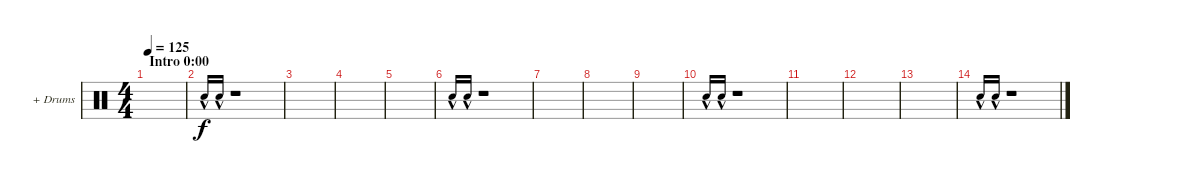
\defaultSystemsLayout 4
\bracketExtendMode groupsimilarinstruments
\firstSystemTrackNameOrientation horizontal
\otherSystemsTrackNameOrientation horizontal
\track ("+ Drums" "+ Drums") {instrument percussion}
\staff {score}
\articulation defaults
\ts (4 4)
\section ("" "Intro 0:00")
\tempo 125
\clef neutral
\scale
0.474178
\ks c
|
\scale
0.262911 "Snare (hit) 2"{hac}.16{gr onbeat} "Snare (hit) 2"{hac}.16{gr onbeat} r.1 |
\scale
0.262911 |
\scale
0.333333 |
\scale
0.333333 |
\scale
0.333333 "Snare (hit) 2"{hac}.16{gr onbeat} "Snare (hit) 2"{hac}.16{gr onbeat} r.1 |
\scale
0.333333 |
\scale
0.333333 |
\scale
0.333333 |
\scale
0.333333 "Snare (hit) 2"{hac}.16{gr onbeat} "Snare (hit) 2"{hac}.16{gr onbeat} r.1 |
\scale
0.333333 |
\scale
0.333333 |
\scale
0.333333 |
\scale
0.333333 "Snare (hit) 2"{hac}.16{gr onbeat} "Snare (hit) 2"{hac}.16{gr onbeat} r.1 |
\scale
0.333333 |
\scale
0.333333
